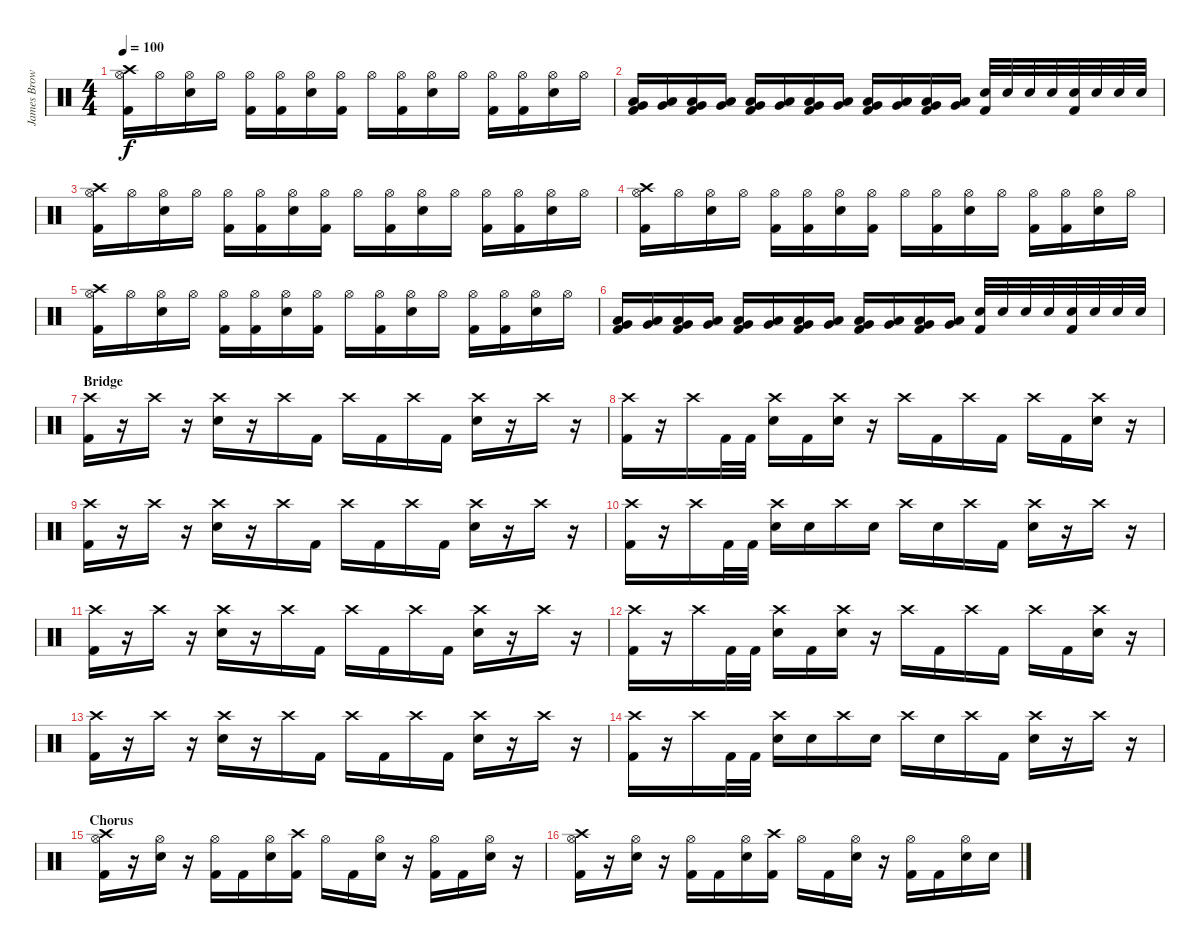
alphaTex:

\track ("James Brown" "James Brow") {instrument percussion}
\staff {score}
\articulation defaults
\ts (4 4)
\tempo 100
\clef neutral
\ks c
("Crash high (hit)" "Hi-Hat (open)" "Kick (hit) 2").16{dy f} "Hi-Hat (open)".16 ("Hi-Hat (open)" "Snare (hit) 2").16 "Hi-Hat (open)".16 ("Hi-Hat (open)" "Kick (hit) 2").16 ("Hi-Hat (open)" "Kick (hit) 2").16 ("Hi-Hat (open)" "Snare (hit) 2").16 ("Hi-Hat (open)" "Kick (hit) 2").16 "Hi-Hat (open)".16 ("Hi-Hat (open)" "Kick (hit) 2").16 ("Hi-Hat (open)" "Snare (hit) 2").16 "Hi-Hat (open)".16 ("Hi-Hat (open)" "Kick (hit) 2").16 ("Hi-Hat (open)" "Kick (hit) 2").16 ("Hi-Hat (open)" "Snare (hit) 2").16 "Hi-Hat (open)".16 |
("Low Floor Tom (hit)" "Very Low Tom (hit)" "Kick (hit) 2").16 ("Low Floor Tom (hit)" "Very Low Tom (hit)").16 ("Low Floor Tom (hit)" "Very Low Tom (hit)" "Kick (hit) 2").16 ("Low Floor Tom (hit)" "Very Low Tom (hit)").16 ("Low Floor Tom (hit)" "Very Low Tom (hit)" "Kick (hit) 2").16 ("Low Floor Tom (hit)" "Very Low Tom (hit)").16 ("Low Floor Tom (hit)" "Very Low Tom (hit)" "Kick (hit) 2").16 ("Low Floor Tom (hit)" "Very Low Tom (hit)").16 ("Low Floor Tom (hit)" "Very Low Tom (hit)" "Kick (hit) 2").16 ("Low Floor Tom (hit)" "Very Low Tom (hit)").16 ("Low Floor Tom (hit)" "Very Low Tom (hit)" "Kick (hit) 2").16 ("Low Floor Tom (hit)" "Very Low Tom (hit)").16 ("Snare (hit) 2" "Kick (hit) 2").32 "Snare (hit) 2".32 "Snare (hit) 2".32 "Snare (hit) 2".32 ("Snare (hit) 2" "Kick (hit) 2").32 "Snare (hit) 2".32 "Snare (hit) 2".32 "Snare (hit) 2".32 |
("Crash high (hit)" "Hi-Hat (open)" "Kick (hit) 2").16 "Hi-Hat (open)".16 ("Hi-Hat (open)" "Snare (hit) 2").16 "Hi-Hat (open)".16 ("Hi-Hat (open)" "Kick (hit) 2").16 ("Hi-Hat (open)" "Kick (hit) 2").16 ("Hi-Hat (open)" "Snare (hit) 2").16 ("Hi-Hat (open)" "Kick (hit) 2").16 "Hi-Hat (open)".16 ("Hi-Hat (open)" "Kick (hit) 2").16 ("Hi-Hat (open)" "Snare (hit) 2").16 "Hi-Hat (open)".16 ("Hi-Hat (open)" "Kick (hit) 2").16 ("Hi-Hat (open)" "Kick (hit) 2").16 ("Hi-Hat (open)" "Snare (hit) 2").16 "Hi-Hat (open)".16 |
("Crash high (hit)" "Hi-Hat (open)" "Kick (hit) 2").16 "Hi-Hat (open)".16 ("Hi-Hat (open)" "Snare (hit) 2").16 "Hi-Hat (open)".16 ("Hi-Hat (open)" "Kick (hit) 2").16 ("Hi-Hat (open)" "Kick (hit) 2").16 ("Hi-Hat (open)" "Snare (hit) 2").16 ("Hi-Hat (open)" "Kick (hit) 2").16 "Hi-Hat (open)".16 ("Hi-Hat (open)" "Kick (hit) 2").16 ("Hi-Hat (open)" "Snare (hit) 2").16 "Hi-Hat (open)".16 ("Hi-Hat (open)" "Kick (hit) 2").16 ("Hi-Hat (open)" "Kick (hit) 2").16 ("Hi-Hat (open)" "Snare (hit) 2").16 "Hi-Hat (open)".16 |
("Crash high (hit)" "Hi-Hat (open)" "Kick (hit) 2").16 "Hi-Hat (open)".16 ("Hi-Hat (open)" "Snare (hit) 2").16 "Hi-Hat (open)".16 ("Hi-Hat (open)" "Kick (hit) 2").16 ("Hi-Hat (open)" "Kick (hit) 2").16 ("Hi-Hat (open)" "Snare (hit) 2").16 ("Hi-Hat (open)" "Kick (hit) 2").16 "Hi-Hat (open)".16 ("Hi-Hat (open)" "Kick (hit) 2").16 ("Hi-Hat (open)" "Snare (hit) 2").16 "Hi-Hat (open)".16 ("Hi-Hat (open)" "Kick (hit) 2").16 ("Hi-Hat (open)" "Kick (hit) 2").16 ("Hi-Hat (open)" "Snare (hit) 2").16 "Hi-Hat (open)".16 |
("Low Floor Tom (hit)" "Very Low Tom (hit)" "Kick (hit) 2").16 ("Low Floor Tom (hit)" "Very Low Tom (hit)").16 ("Low Floor Tom (hit)" "Very Low Tom (hit)" "Kick (hit) 2").16 ("Low Floor Tom (hit)" "Very Low Tom (hit)").16 ("Low Floor Tom (hit)" "Very Low Tom (hit)" "Kick (hit) 2").16 ("Low Floor Tom (hit)" "Very Low Tom (hit)").16 ("Low Floor Tom (hit)" "Very Low Tom (hit)" "Kick (hit) 2").16 ("Low Floor Tom (hit)" "Very Low Tom (hit)").16 ("Low Floor Tom (hit)" "Very Low Tom (hit)" "Kick (hit) 2").16 ("Low Floor Tom (hit)" "Very Low Tom (hit)").16 ("Low Floor Tom (hit)" "Very Low Tom (hit)" "Kick (hit) 2").16 ("Low Floor Tom (hit)" "Very Low Tom (hit)").16 ("Snare (hit) 2" "Kick (hit) 2").32 "Snare (hit) 2".32 "Snare (hit) 2".32 "Snare (hit) 2".32 ("Snare (hit) 2" "Kick (hit) 2").32 "Snare (hit) 2".32 "Snare (hit) 2".32 "Snare (hit) 2".32 |
\section ("" "Bridge")
("Crash high (hit)" "Kick (hit) 2").16 r.16 "Crash high (hit)".16 r.16 ("Crash high (hit)" "Snare (hit) 2").16 r.16 "Crash high (hit)".16 "Kick (hit) 2".16 "Crash high (hit)".16 "Kick (hit) 2".16 "Crash high (hit)".16 "Kick (hit) 2".16 ("Crash high (hit)" "Snare (hit) 2").16 r.16 "Crash high (hit)".16 r.16 |
("Crash high (hit)" "Kick (hit) 2").16 r.16 "Crash high (hit)".16 "Kick (hit) 2".32 "Kick (hit) 2".32 ("Crash high (hit)" "Snare (hit) 2").16 "Kick (hit) 2".16 ("Crash high (hit)" "Snare (hit) 2").16 r.16 "Crash high (hit)".16 "Kick (hit) 2".16 "Crash high (hit)".16 "Kick (hit) 2".16 "Crash high (hit)".16 "Kick (hit) 2".16 ("Crash high (hit)" "Snare (hit) 2").16 r.16 |
("Crash high (hit)" "Kick (hit) 2").16 r.16 "Crash high (hit)".16 r.16 ("Crash high (hit)" "Snare (hit) 2").16 r.16 "Crash high (hit)".16 "Kick (hit) 2".16 "Crash high (hit)".16 "Kick (hit) 2".16 "Crash high (hit)".16 "Kick (hit) 2".16 ("Crash high (hit)" "Snare (hit) 2").16 r.16 "Crash high (hit)".16 r.16 |
("Crash high (hit)" "Kick (hit) 2").16 r.16 "Crash high (hit)".16 "Kick (hit) 2".32 "Kick (hit) 2".32 ("Crash high (hit)" "Snare (hit) 2").16 "Snare (hit) 2".16 "Crash high (hit)".16 "Snare (hit) 2".16 "Crash high (hit)".16 "Snare (hit) 2".16 "Crash high (hit)".16 "Kick (hit) 2".16 ("Crash high (hit)" "Snare (hit) 2").16 r.16 "Crash high (hit)".16 r.16 |
("Crash high (hit)" "Kick (hit) 2").16 r.16 "Crash high (hit)".16 r.16 ("Crash high (hit)" "Snare (hit) 2").16 r.16 "Crash high (hit)".16 "Kick (hit) 2".16 "Crash high (hit)".16 "Kick (hit) 2".16 "Crash high (hit)".16 "Kick (hit) 2".16 ("Crash high (hit)" "Snare (hit) 2").16 r.16 "Crash high (hit)".16 r.16 |
("Crash high (hit)" "Kick (hit) 2").16 r.16 "Crash high (hit)".16 "Kick (hit) 2".32 "Kick (hit) 2".32 ("Crash high (hit)" "Snare (hit) 2").16 "Kick (hit) 2".16 ("Crash high (hit)" "Snare (hit) 2").16 r.16 "Crash high (hit)".16 "Kick (hit) 2".16 "Crash high (hit)".16 "Kick (hit) 2".16 "Crash high (hit)".16 "Kick (hit) 2".16 ("Crash high (hit)" "Snare (hit) 2").16 r.16 |
("Crash high (hit)" "Kick (hit) 2").16 r.16 "Crash high (hit)".16 r.16 ("Crash high (hit)" "Snare (hit) 2").16 r.16 "Crash high (hit)".16 "Kick (hit) 2".16 "Crash high (hit)".16 "Kick (hit) 2".16 "Crash high (hit)".16 "Kick (hit) 2".16 ("Crash high (hit)" "Snare (hit) 2").16 r.16 "Crash high (hit)".16 r.16 |
("Crash high (hit)" "Kick (hit) 2").16 r.16 "Crash high (hit)".16 "Kick (hit) 2".32 "Kick (hit) 2".32 ("Crash high (hit)" "Snare (hit) 2").16 "Snare (hit) 2".16 "Crash high (hit)".16 "Snare (hit) 2".16 "Crash high (hit)".16 "Snare (hit) 2".16 "Crash high (hit)".16 "Kick (hit) 2".16 ("Crash high (hit)" "Snare (hit) 2").16 r.16 "Crash high (hit)".16 r.16 |
\section ("" "Chorus")
("Crash high (hit)" "Hi-Hat (open)" "Kick (hit) 2").16 r.16 ("Hi-Hat (open)" "Snare (hit) 2").16 r.16 ("Hi-Hat (open)" "Kick (hit) 2").16 "Kick (hit) 2".16 ("Hi-Hat (open)" "Snare (hit) 2").16 ("Crash high (hit)" "Kick (hit) 2").16 "Hi-Hat (open)".16 "Kick (hit) 2".16 ("Hi-Hat (open)" "Snare (hit) 2").16 r.16 ("Hi-Hat (open)" "Kick (hit) 2").16 "Kick (hit) 2".16 ("Hi-Hat (open)" "Snare (hit) 2").16 r.16 |
("Crash high (hit)" "Hi-Hat (open)" "Kick (hit) 2").16 r.16 ("Hi-Hat (open)" "Snare (hit) 2").16 r.16 ("Hi-Hat (open)" "Kick (hit) 2").16 "Kick (hit) 2".16 ("Hi-Hat (open)" "Snare (hit) 2").16 ("Crash high (hit)" "Kick (hit) 2").16 "Hi-Hat (open)".16 "Kick (hit) 2".16 ("Hi-Hat (open)" "Snare (hit) 2").16 r.16 ("Hi-Hat (open)" "Kick (hit) 2").16 "Kick (hit) 2".16 ("Hi-Hat (open)" "Snare (hit) 2").16 "Snare (hit) 2".16
